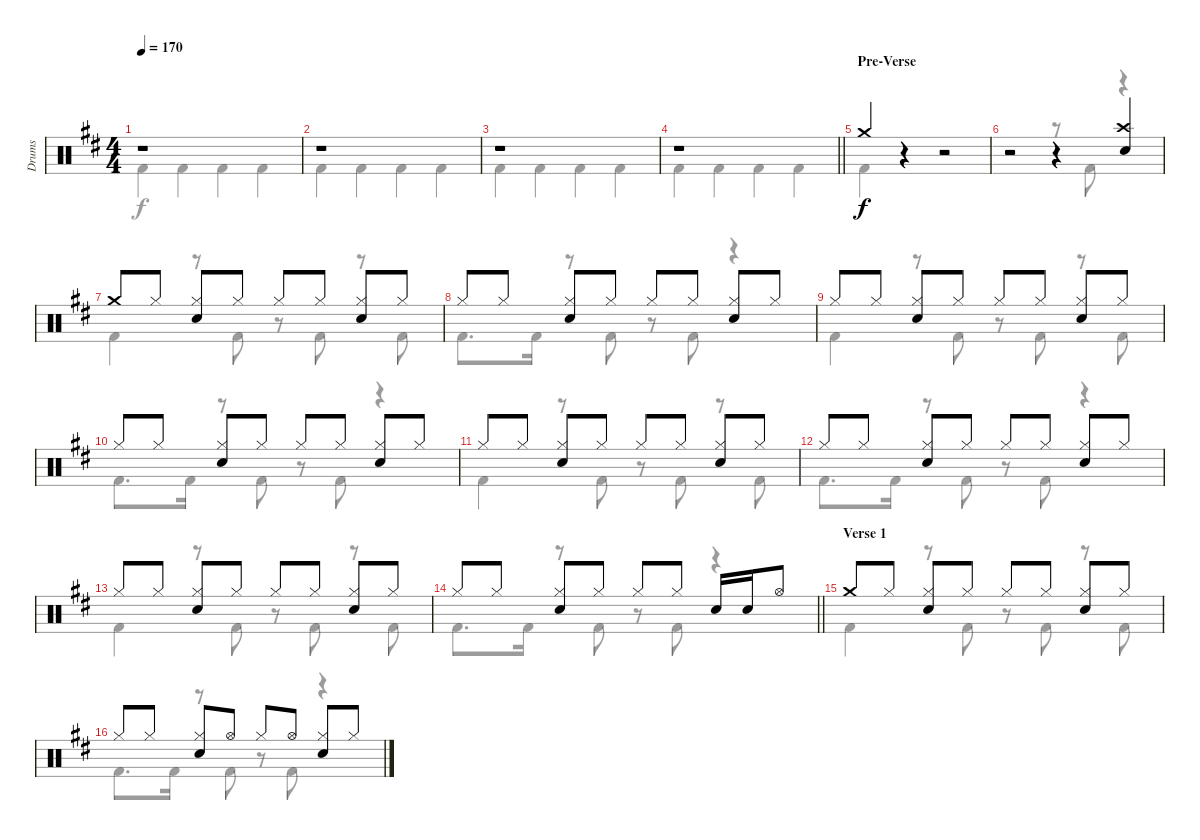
\track ("Drums" "Drums") {instrument percussion}
\staff {score}
\articulation defaults
\voice
\ts (4 4)
\tempo 170
\clef neutral
\ks d
r.1{dy f} |
r.1 |
r.1 |
\barLineRight lightlight
r.1 |
\section ("" "Pre-Verse")
"Crash medium (hit)".4 r.4 r.2 |
r.2 r.4 ("Crash high (hit)" "Snare (hit) 2").4 |
"Crash medium (hit)".8 "Hi-Hat (closed)".8 ("Hi-Hat (closed)" "Snare (hit) 2").8 "Hi-Hat (closed)".8 "Hi-Hat (closed)".8 "Hi-Hat (closed)".8 ("Hi-Hat (closed)" "Snare (hit) 2").8 "Hi-Hat (closed)".8 |
"Hi-Hat (closed)".8 "Hi-Hat (closed)".8 ("Hi-Hat (closed)" "Snare (hit) 2").8 "Hi-Hat (closed)".8 "Hi-Hat (closed)".8 "Hi-Hat (closed)".8 ("Hi-Hat (closed)" "Snare (hit) 2").8 "Hi-Hat (closed)".8 |
"Hi-Hat (closed)".8 "Hi-Hat (closed)".8 ("Hi-Hat (closed)" "Snare (hit) 2").8 "Hi-Hat (closed)".8 "Hi-Hat (closed)".8 "Hi-Hat (closed)".8 ("Hi-Hat (closed)" "Snare (hit) 2").8 "Hi-Hat (closed)".8 |
"Hi-Hat (closed)".8 "Hi-Hat (closed)".8 ("Hi-Hat (closed)" "Snare (hit) 2").8 "Hi-Hat (closed)".8 "Hi-Hat (closed)".8 "Hi-Hat (closed)".8 ("Hi-Hat (closed)" "Snare (hit) 2").8 "Hi-Hat (closed)".8 |
"Hi-Hat (closed)".8 "Hi-Hat (closed)".8 ("Hi-Hat (closed)" "Snare (hit) 2").8 "Hi-Hat (closed)".8 "Hi-Hat (closed)".8 "Hi-Hat (closed)".8 ("Hi-Hat (closed)" "Snare (hit) 2").8 "Hi-Hat (closed)".8 |
"Hi-Hat (closed)".8 "Hi-Hat (closed)".8 ("Hi-Hat (closed)" "Snare (hit) 2").8 "Hi-Hat (closed)".8 "Hi-Hat (closed)".8 "Hi-Hat (closed)".8 ("Hi-Hat (closed)" "Snare (hit) 2").8 "Hi-Hat (closed)".8 |
"Hi-Hat (closed)".8 "Hi-Hat (closed)".8 ("Hi-Hat (closed)" "Snare (hit) 2").8 "Hi-Hat (closed)".8 "Hi-Hat (closed)".8 "Hi-Hat (closed)".8 ("Hi-Hat (closed)" "Snare (hit) 2").8 "Hi-Hat (closed)".8 |
\barLineRight lightlight "Hi-Hat (closed)".8 "Hi-Hat (closed)".8
("Hi-Hat (closed)" "Snare (hit) 2").8 "Hi-Hat (closed)".8 "Hi-Hat (closed)".8 "Hi-Hat (closed)".8 "Snare (hit) 2".16 "Snare (hit) 2".16 "Hi-Hat (open)".8 |
\section ("" "Verse 1")
"Crash medium (hit)".8 "Hi-Hat (closed)".8 ("Hi-Hat (closed)" "Snare (hit) 2").8 "Hi-Hat (closed)".8 "Hi-Hat (closed)".8 "Hi-Hat (closed)".8 ("Hi-Hat (closed)" "Snare (hit) 2").8 "Hi-Hat (closed)".8 |
"Hi-Hat (closed)".8 "Hi-Hat (closed)".8 ("Hi-Hat (closed)" "Snare (hit) 2").8 "Hi-Hat (open)".8 "Hi-Hat (closed)".8 "Hi-Hat (open)".8 ("Hi-Hat (closed)" "Snare (hit) 2").8 "Hi-Hat (closed)".8
\voice
\clef neutral
\ottava regular
\simile none
\ks d "Kick (hit) 2".4{dy f} "Kick (hit) 2".4 "Kick (hit) 2".4 "Kick (hit) 2".4
|
"Kick (hit) 2".4 "Kick (hit) 2".4 "Kick (hit) 2".4 "Kick (hit) 2".4 |
"Kick (hit) 2".4 "Kick (hit) 2".4 "Kick (hit) 2".4 "Kick (hit) 2".4 |
\barLineRight lightlight "Kick (hit) 2".4 "Kick (hit) 2".4 "Kick (hit) 2".4 "Kick (hit) 2".4
|
"Kick (hit) 2".4 r.4 r.2 |
r.2 r.8 "Kick (hit) 2".8 r.4 |
"Kick (hit) 2".4 r.8 "Kick (hit) 2".8 r.8 "Kick (hit) 2".8 r.8 "Kick (hit) 2".8 |
"Kick (hit) 2".8{d} "Kick (hit) 2".16 r.8 "Kick (hit) 2".8 r.8 "Kick (hit) 2".8 r.4 |
"Kick (hit) 2".4 r.8 "Kick (hit) 2".8 r.8 "Kick (hit) 2".8 r.8 "Kick (hit) 2".8 |
"Kick (hit) 2".8{d} "Kick (hit) 2".16 r.8 "Kick (hit) 2".8 r.8 "Kick (hit) 2".8 r.4 |
"Kick (hit) 2".4 r.8 "Kick (hit) 2".8 r.8 "Kick (hit) 2".8 r.8 "Kick (hit) 2".8 |
"Kick (hit) 2".8{d} "Kick (hit) 2".16 r.8 "Kick (hit) 2".8 r.8 "Kick (hit) 2".8 r.4 |
"Kick (hit) 2".4 r.8 "Kick (hit) 2".8 r.8 "Kick (hit) 2".8 r.8 "Kick (hit) 2".8 |
\barLineRight lightlight "Kick (hit) 2".8{d} "Kick (hit) 2".16
r.8 "Kick (hit) 2".8 r.8 "Kick (hit) 2".8 r.4 |
"Kick (hit) 2".4 r.8 "Kick (hit) 2".8 r.8 "Kick (hit) 2".8 r.8 "Kick (hit) 2".8 |
"Kick (hit) 2".8{d} "Kick (hit) 2".16 r.8 "Kick (hit) 2".8 r.8 "Kick (hit) 2".8 r.4
